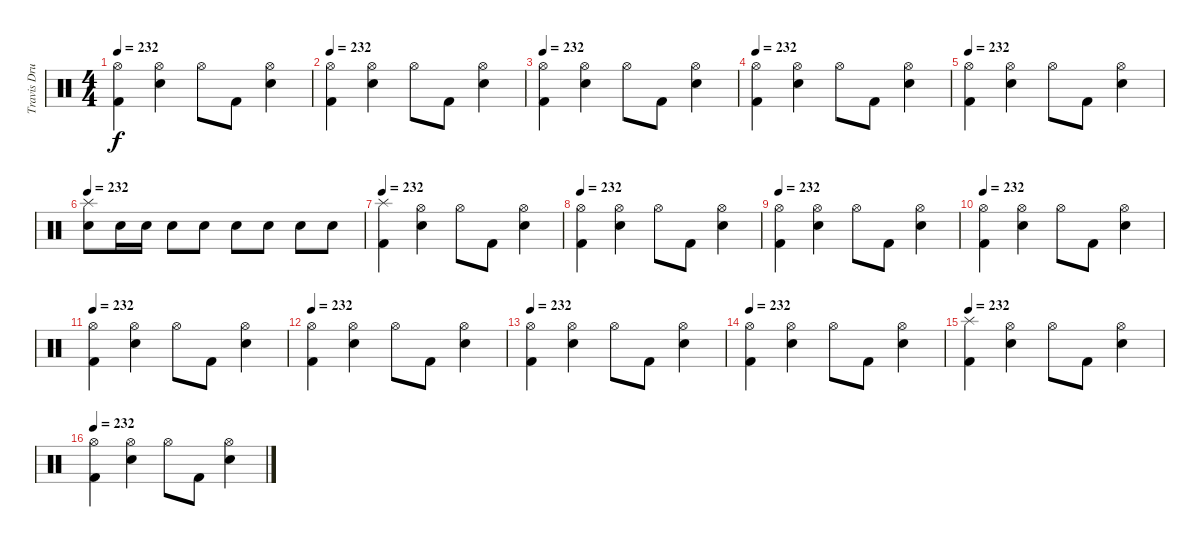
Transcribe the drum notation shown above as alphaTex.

\track ("Travis Drums" "Travis Dru") {instrument percussion}
\staff {score}
\articulation defaults
\ts (4 4)
\tempo 232
\clef neutral
\ks c
("Hi-Hat (open)" "Kick (hit) 2").4{dy f} ("Hi-Hat (open)" "Electric Snare (hit)").4 "Hi-Hat (open)".8 "Kick (hit) 2".8 ("Hi-Hat (open)" "Electric Snare (hit)").4 |
\tempo 232
("Hi-Hat (open)" "Kick (hit) 2").4 ("Hi-Hat (open)" "Electric Snare (hit)").4 "Hi-Hat (open)".8 "Kick (hit) 2".8 ("Hi-Hat (open)" "Electric Snare (hit)").4 |
\tempo 232
("Hi-Hat (open)" "Kick (hit) 2").4 ("Hi-Hat (open)" "Electric Snare (hit)").4 "Hi-Hat (open)".8 "Kick (hit) 2".8 ("Hi-Hat (open)" "Electric Snare (hit)").4 |
\tempo 232
("Hi-Hat (open)" "Kick (hit) 2").4 ("Hi-Hat (open)" "Electric Snare (hit)").4 "Hi-Hat (open)".8 "Kick (hit) 2".8 ("Hi-Hat (open)" "Electric Snare (hit)").4 |
\tempo 232
("Hi-Hat (open)" "Kick (hit) 2").4 ("Hi-Hat (open)" "Electric Snare (hit)").4 "Hi-Hat (open)".8 "Kick (hit) 2".8 ("Hi-Hat (open)" "Electric Snare (hit)").4 |
\tempo 232
("Splash (hit)" "Electric Snare (hit)").8 "Electric Snare (hit)".16 "Electric Snare (hit)".16 "Electric Snare (hit)".8 "Electric Snare (hit)".8 "Electric Snare (hit)".8 "Electric Snare (hit)".8 "Electric Snare (hit)".8 "Electric Snare (hit)".8 |
\tempo 232
("Splash (hit)" "Kick (hit) 2").4 ("Hi-Hat (open)" "Electric Snare (hit)").4 "Hi-Hat (open)".8 "Kick (hit) 2".8 ("Hi-Hat (open)" "Electric Snare (hit)").4 |
\tempo 232
("Hi-Hat (open)" "Kick (hit) 2").4 ("Hi-Hat (open)" "Electric Snare (hit)").4 "Hi-Hat (open)".8 "Kick (hit) 2".8 ("Hi-Hat (open)" "Electric Snare (hit)").4 |
\tempo 232
("Hi-Hat (open)" "Kick (hit) 2").4 ("Hi-Hat (open)" "Electric Snare (hit)").4 "Hi-Hat (open)".8 "Kick (hit) 2".8 ("Hi-Hat (open)" "Electric Snare (hit)").4 |
\tempo 232
("Hi-Hat (open)" "Kick (hit) 2").4 ("Hi-Hat (open)" "Electric Snare (hit)").4 "Hi-Hat (open)".8 "Kick (hit) 2".8 ("Hi-Hat (open)" "Electric Snare (hit)").4 |
\tempo 232
("Hi-Hat (open)" "Kick (hit) 2").4 ("Hi-Hat (open)" "Electric Snare (hit)").4 "Hi-Hat (open)".8 "Kick (hit) 2".8 ("Hi-Hat (open)" "Electric Snare (hit)").4 |
\tempo 232
("Hi-Hat (open)" "Kick (hit) 2").4 ("Hi-Hat (open)" "Electric Snare (hit)").4 "Hi-Hat (open)".8 "Kick (hit) 2".8 ("Hi-Hat (open)" "Electric Snare (hit)").4 |
\tempo 232
("Hi-Hat (open)" "Kick (hit) 2").4 ("Hi-Hat (open)" "Electric Snare (hit)").4 "Hi-Hat (open)".8 "Kick (hit) 2".8 ("Hi-Hat (open)" "Electric Snare (hit)").4 |
\tempo 232
("Hi-Hat (open)" "Kick (hit) 2").4 ("Hi-Hat (open)" "Electric Snare (hit)").4 "Hi-Hat (open)".8 "Kick (hit) 2".8 ("Hi-Hat (open)" "Electric Snare (hit)").4 |
\tempo 232
("Splash (hit)" "Kick (hit) 2").4 ("Hi-Hat (open)" "Electric Snare (hit)").4 "Hi-Hat (open)".8 "Kick (hit) 2".8 ("Hi-Hat (open)" "Electric Snare (hit)").4 |
\tempo 232
("Hi-Hat (open)" "Kick (hit) 2").4 ("Hi-Hat (open)" "Electric Snare (hit)").4 "Hi-Hat (open)".8 "Kick (hit) 2".8 ("Hi-Hat (open)" "Electric Snare (hit)").4
